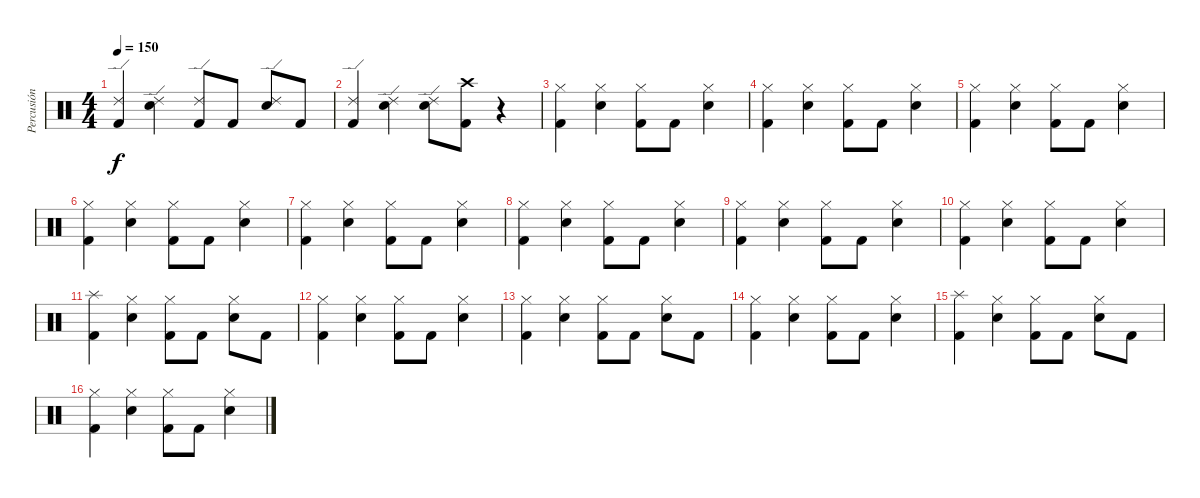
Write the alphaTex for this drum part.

\track ("Percusión" "Percusión") {instrument percussion}
\staff {score}
\articulation defaults
\ts (4 4)
\tempo 150
\clef neutral
\ks c
("Ride (edge) 2" "Kick (hit) 2").4{dy f} ("Ride (edge) 2" "Electric Snare (hit)").4 ("Ride (edge) 2" "Kick (hit) 2").8 "Kick (hit) 2".8 ("Ride (edge) 2" "Electric Snare (hit)").8 "Kick (hit) 2".8 |
("Ride (edge) 2" "Kick (hit) 2").4 ("Ride (edge) 2" "Electric Snare (hit)").4 ("Ride (edge) 2" "Electric Snare (hit)").8 ("Crash high (hit)" "Kick (hit) 2").8 r.4 |
("Hi-Hat (closed)" "Kick (hit) 2").4 ("Hi-Hat (closed)" "Electric Snare (hit)").4 ("Hi-Hat (closed)" "Kick (hit) 2").8 "Kick (hit) 2".8 ("Hi-Hat (closed)" "Electric Snare (hit)").4 |
("Hi-Hat (closed)" "Kick (hit) 2").4 ("Hi-Hat (closed)" "Electric Snare (hit)").4 ("Hi-Hat (closed)" "Kick (hit) 2").8 "Kick (hit) 2".8 ("Hi-Hat (closed)" "Electric Snare (hit)").4 |
("Hi-Hat (closed)" "Kick (hit) 2").4 ("Hi-Hat (closed)" "Electric Snare (hit)").4 ("Hi-Hat (closed)" "Kick (hit) 2").8 "Kick (hit) 2".8 ("Hi-Hat (closed)" "Electric Snare (hit)").4 |
("Hi-Hat (closed)" "Kick (hit) 2").4 ("Hi-Hat (closed)" "Electric Snare (hit)").4 ("Hi-Hat (closed)" "Kick (hit) 2").8 "Kick (hit) 2".8 ("Hi-Hat (closed)" "Electric Snare (hit)").4 |
("Hi-Hat (closed)" "Kick (hit) 2").4 ("Hi-Hat (closed)" "Electric Snare (hit)").4 ("Hi-Hat (closed)" "Kick (hit) 2").8 "Kick (hit) 2".8 ("Hi-Hat (closed)" "Electric Snare (hit)").4 |
("Hi-Hat (closed)" "Kick (hit) 2").4 ("Hi-Hat (closed)" "Electric Snare (hit)").4 ("Hi-Hat (closed)" "Kick (hit) 2").8 "Kick (hit) 2".8 ("Hi-Hat (closed)" "Electric Snare (hit)").4 |
("Hi-Hat (closed)" "Kick (hit) 2").4 ("Hi-Hat (closed)" "Electric Snare (hit)").4 ("Hi-Hat (closed)" "Kick (hit) 2").8 "Kick (hit) 2".8 ("Hi-Hat (closed)" "Electric Snare (hit)").4 |
("Hi-Hat (closed)" "Kick (hit) 2").4 ("Hi-Hat (closed)" "Electric Snare (hit)").4 ("Hi-Hat (closed)" "Kick (hit) 2").8 "Kick (hit) 2".8 ("Hi-Hat (closed)" "Electric Snare (hit)").4 |
("Splash (hit)" "Kick (hit) 2").4 ("Hi-Hat (closed)" "Electric Snare (hit)").4 ("Hi-Hat (closed)" "Kick (hit) 2").8 "Kick (hit) 2".8 ("Hi-Hat (closed)" "Electric Snare (hit)").8 "Kick (hit) 2".8 |
("Hi-Hat (closed)" "Kick (hit) 2").4 ("Hi-Hat (closed)" "Electric Snare (hit)").4 ("Hi-Hat (closed)" "Kick (hit) 2").8 "Kick (hit) 2".8 ("Hi-Hat (closed)" "Electric Snare (hit)").4 |
("Hi-Hat (closed)" "Kick (hit) 2").4 ("Hi-Hat (closed)" "Electric Snare (hit)").4 ("Hi-Hat (closed)" "Kick (hit) 2").8 "Kick (hit) 2".8 ("Hi-Hat (closed)" "Electric Snare (hit)").8 "Kick (hit) 2".8 |
("Hi-Hat (closed)" "Kick (hit) 2").4 ("Hi-Hat (closed)" "Electric Snare (hit)").4 ("Hi-Hat (closed)" "Kick (hit) 2").8 "Kick (hit) 2".8 ("Hi-Hat (closed)" "Electric Snare (hit)").4 |
("Splash (hit)" "Kick (hit) 2").4 ("Hi-Hat (closed)" "Electric Snare (hit)").4 ("Hi-Hat (closed)" "Kick (hit) 2").8 "Kick (hit) 2".8 ("Hi-Hat (closed)" "Electric Snare (hit)").8 "Kick (hit) 2".8 |
("Hi-Hat (closed)" "Kick (hit) 2").4 ("Hi-Hat (closed)" "Electric Snare (hit)").4 ("Hi-Hat (closed)" "Kick (hit) 2").8 "Kick (hit) 2".8 ("Hi-Hat (closed)" "Electric Snare (hit)").4
